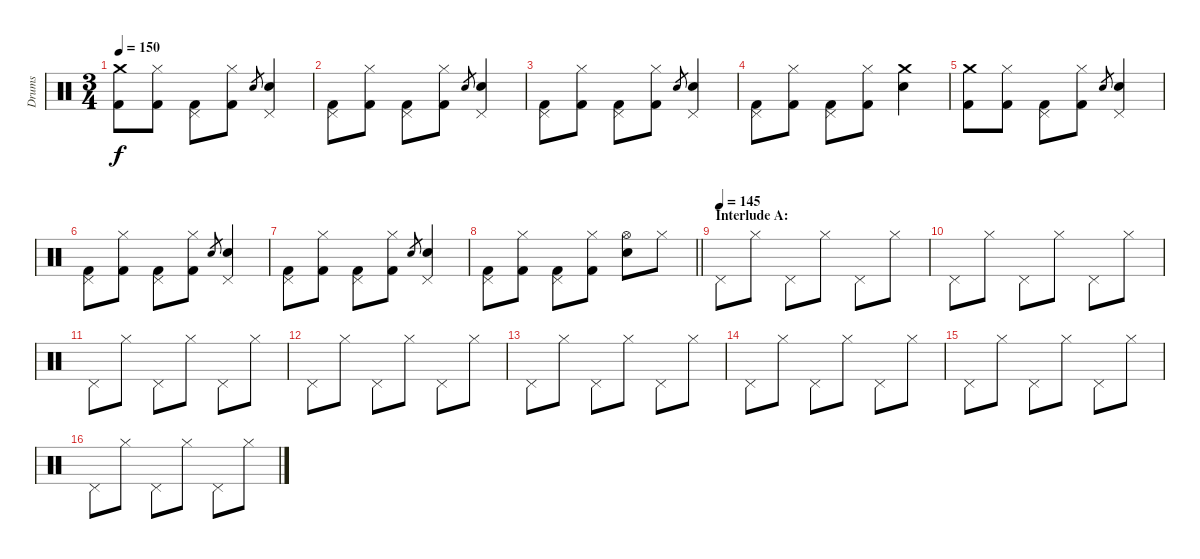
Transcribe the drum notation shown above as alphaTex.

\track ("Drums" "Drums") {instrument percussion}
\staff {score}
\articulation defaults
\ts (3 4)
\tempo 150
\clef neutral
\ks c
("Crash medium (hit)" "Kick (hit) 2").8{dy f} ("Hi-Hat (closed)" "Kick (hit) 2").8 ("Pedal Hi-Hat (hit)" "Kick (hit) 2").8 ("Hi-Hat (closed)" "Kick (hit) 2").8 "Electric Snare (hit)".8{gr} ("Pedal Hi-Hat (hit)" "Electric Snare (hit)").4 |
("Pedal Hi-Hat (hit)" "Kick (hit) 2").8 ("Hi-Hat (closed)" "Kick (hit) 2").8 ("Pedal Hi-Hat (hit)" "Kick (hit) 2").8 ("Hi-Hat (closed)" "Kick (hit) 2").8 "Electric Snare (hit)".8{gr} ("Pedal Hi-Hat (hit)" "Electric Snare (hit)").4 |
("Pedal Hi-Hat (hit)" "Kick (hit) 2").8 ("Hi-Hat (closed)" "Kick (hit) 2").8 ("Pedal Hi-Hat (hit)" "Kick (hit) 2").8 ("Hi-Hat (closed)" "Kick (hit) 2").8 "Electric Snare (hit)".8{gr} ("Pedal Hi-Hat (hit)" "Electric Snare (hit)").4 |
("Pedal Hi-Hat (hit)" "Kick (hit) 2").8 ("Hi-Hat (closed)" "Kick (hit) 2").8 ("Pedal Hi-Hat (hit)" "Kick (hit) 2").8 ("Hi-Hat (closed)" "Kick (hit) 2").8 ("Crash medium (hit)" "Electric Snare (hit)").4 |
("Crash medium (hit)" "Kick (hit) 2").8 ("Hi-Hat (closed)" "Kick (hit) 2").8 ("Pedal Hi-Hat (hit)" "Kick (hit) 2").8 ("Hi-Hat (closed)" "Kick (hit) 2").8 "Electric Snare (hit)".8{gr} ("Pedal Hi-Hat (hit)" "Electric Snare (hit)").4 |
("Pedal Hi-Hat (hit)" "Kick (hit) 2").8 ("Hi-Hat (closed)" "Kick (hit) 2").8 ("Pedal Hi-Hat (hit)" "Kick (hit) 2").8 ("Hi-Hat (closed)" "Kick (hit) 2").8 "Electric Snare (hit)".8{gr} ("Pedal Hi-Hat (hit)" "Electric Snare (hit)").4 |
("Pedal Hi-Hat (hit)" "Kick (hit) 2").8 ("Hi-Hat (closed)" "Kick (hit) 2").8 ("Pedal Hi-Hat (hit)" "Kick (hit) 2").8 ("Hi-Hat (closed)" "Kick (hit) 2").8 "Electric Snare (hit)".8{gr} ("Pedal Hi-Hat (hit)" "Electric Snare (hit)").4 |
\barLineRight lightlight
("Pedal Hi-Hat (hit)" "Kick (hit) 2").8 ("Hi-Hat (closed)" "Kick (hit) 2").8 ("Pedal Hi-Hat (hit)" "Kick (hit) 2").8 ("Hi-Hat (closed)" "Kick (hit) 2").8 ("Hi-Hat (open)" "Electric Snare (hit)").8 "Hi-Hat (closed)".8 |
\section ("" "Interlude A:")
\tempo (145)
"Pedal Hi-Hat (hit)".8 "Hi-Hat (closed)".8 "Pedal Hi-Hat (hit)".8 "Hi-Hat (closed)".8 "Pedal Hi-Hat (hit)".8 "Hi-Hat (closed)".8 |
"Pedal Hi-Hat (hit)".8 "Hi-Hat (closed)".8 "Pedal Hi-Hat (hit)".8 "Hi-Hat (closed)".8 "Pedal Hi-Hat (hit)".8 "Hi-Hat (closed)".8 |
"Pedal Hi-Hat (hit)".8 "Hi-Hat (closed)".8 "Pedal Hi-Hat (hit)".8 "Hi-Hat (closed)".8 "Pedal Hi-Hat (hit)".8 "Hi-Hat (closed)".8 |
"Pedal Hi-Hat (hit)".8 "Hi-Hat (closed)".8 "Pedal Hi-Hat (hit)".8 "Hi-Hat (closed)".8 "Pedal Hi-Hat (hit)".8 "Hi-Hat (closed)".8 |
"Pedal Hi-Hat (hit)".8 "Hi-Hat (closed)".8 "Pedal Hi-Hat (hit)".8 "Hi-Hat (closed)".8 "Pedal Hi-Hat (hit)".8 "Hi-Hat (closed)".8 |
"Pedal Hi-Hat (hit)".8 "Hi-Hat (closed)".8 "Pedal Hi-Hat (hit)".8 "Hi-Hat (closed)".8 "Pedal Hi-Hat (hit)".8 "Hi-Hat (closed)".8 |
"Pedal Hi-Hat (hit)".8 "Hi-Hat (closed)".8 "Pedal Hi-Hat (hit)".8 "Hi-Hat (closed)".8 "Pedal Hi-Hat (hit)".8 "Hi-Hat (closed)".8 |
"Pedal Hi-Hat (hit)".8 "Hi-Hat (closed)".8 "Pedal Hi-Hat (hit)".8 "Hi-Hat (closed)".8 "Pedal Hi-Hat (hit)".8 "Hi-Hat (closed)".8
